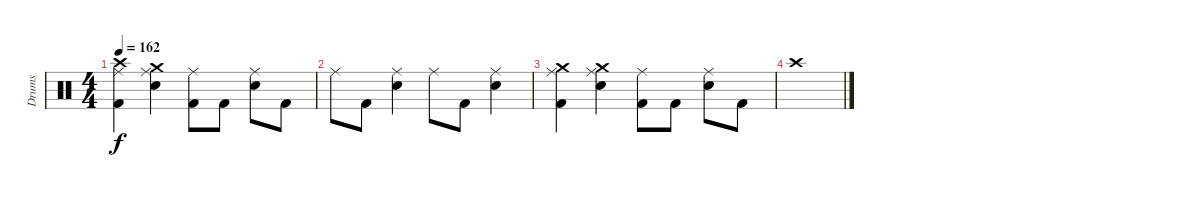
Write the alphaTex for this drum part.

\track ("Drums" "Drums") {instrument percussion}
\staff {score}
\articulation defaults
\ts (4 4)
\tempo 162
\clef neutral
\ks c
("Crash high (hit)" "Ride (middle)" "Kick (hit) 2").4{dy f} ("Crash medium (hit)" "Ride (middle)" "Electric Snare (hit)").4 ("Ride (middle)" "Kick (hit) 2").8 "Kick (hit) 2".8 ("Ride (middle)" "Electric Snare (hit)").8 "Kick (hit) 2".8 |
"Ride (middle)".8 "Kick (hit) 2".8 ("Ride (middle)" "Electric Snare (hit)").4 "Ride (middle)".8 "Kick (hit) 2".8 ("Ride (middle)" "Electric Snare (hit)").4 |
("Crash medium (hit)" "Ride (middle)" "Kick (hit) 2").4 ("Crash medium (hit)" "Ride (middle)" "Electric Snare (hit)").4 ("Ride (middle)" "Kick (hit) 2").8 "Kick (hit) 2".8 ("Ride (middle)" "Electric Snare (hit)").8 "Kick (hit) 2".8 |
"Crash high (hit)".1
